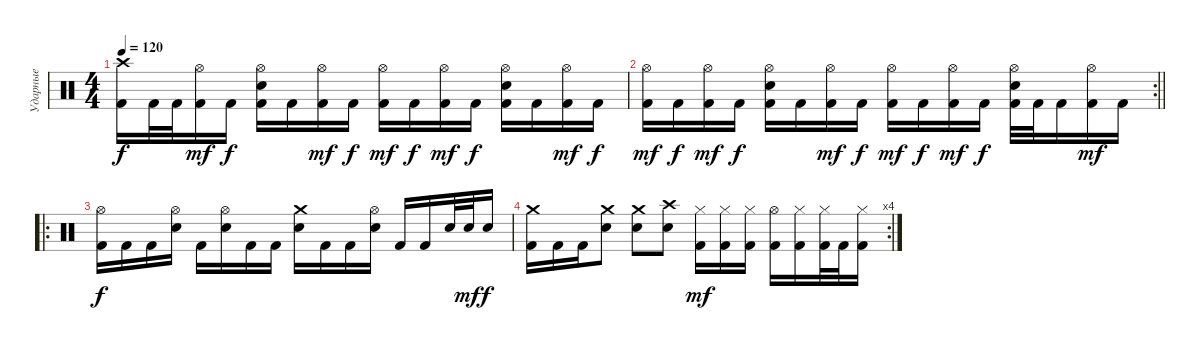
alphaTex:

\track ("Ударные" "Ударные") {instrument percussion}
\staff {score}
\articulation defaults
\ts (4 4)
\tempo 120
\clef neutral
\ks c
("Crash high (hit)" "Kick (hit) 2").16{dy f} "Kick (hit) 2".32 "Kick (hit) 2".32 ("Hi-Hat (open)" "Kick (hit) 2").16{dy mf} "Kick (hit) 2".16{dy f} ("Hi-Hat (open)" "Electric Snare (hit)" "Kick (hit) 2").16 "Kick (hit) 2".16 ("Hi-Hat (open)" "Kick (hit) 2").16{dy mf} "Kick (hit) 2".16{dy f} ("Hi-Hat (open)" "Kick (hit) 2").16{dy mf} "Kick (hit) 2".16{dy f} ("Hi-Hat (open)" "Kick (hit) 2").16{dy mf} "Kick (hit) 2".16{dy f} ("Hi-Hat (open)" "Electric Snare (hit)" "Kick (hit) 2").16 "Kick (hit) 2".16 ("Hi-Hat (open)" "Kick (hit) 2").16{dy mf} "Kick (hit) 2".16{dy f} |
\rc 2
\barLineRight lightlight
("Hi-Hat (open)" "Kick (hit) 2").16{dy mf} "Kick (hit) 2".16{dy f} ("Hi-Hat (open)" "Kick (hit) 2").16{dy mf} "Kick (hit) 2".16{dy f} ("Hi-Hat (open)" "Electric Snare (hit)" "Kick (hit) 2").16 "Kick (hit) 2".16 ("Hi-Hat (open)" "Kick (hit) 2").16{dy mf} "Kick (hit) 2".16{dy f} ("Hi-Hat (open)" "Kick (hit) 2").16{dy mf} "Kick (hit) 2".16{dy f} ("Hi-Hat (open)" "Kick (hit) 2").16{dy mf} "Kick (hit) 2".16{dy f} ("Hi-Hat (open)" "Electric Snare (hit)" "Kick (hit) 2").32 "Kick (hit) 2".32 "Kick (hit) 2".16 ("Hi-Hat (open)" "Kick (hit) 2").16{dy mf} "Kick (hit) 2".16 |
\ro
("Hi-Hat (open)" "Kick (hit) 2").16{dy f} "Kick (hit) 2".16 "Kick (hit) 2".16 ("Hi-Hat (open)" "Electric Snare (hit)").16 "Kick (hit) 2".16 ("Hi-Hat (open)" "Electric Snare (hit)").16 "Kick (hit) 2".16 "Kick (hit) 2".16 ("Crash medium (hit)" "Electric Snare (hit)").16 "Kick (hit) 2".16 "Kick (hit) 2".16 ("Hi-Hat (open)" "Electric Snare (hit)").16 "Kick (hit) 2".16 "Kick (hit) 2".16 "Electric Snare (hit)".32 "Electric Snare (hit)".32{dy mf} "Electric Snare (hit)".16{dy f} |
\rc 4
("Crash medium (hit)" "Kick (hit) 2").16 "Kick (hit) 2".16 "Kick (hit) 2".16 ("Crash medium (hit)" "Electric Snare (hit)").8 ("Crash medium (hit)" "Electric Snare (hit)").8 ("Crash high (hit)" "Electric Snare (hit)").8 ("Hi-Hat (closed)" "Kick (hit) 2").16{dy mf} ("Hi-Hat (closed)" "Kick (hit) 2").16 ("Hi-Hat (closed)" "Kick (hit) 2").16 ("Hi-Hat (open)" "Kick (hit) 2").16 ("Hi-Hat (closed)" "Kick (hit) 2").16 ("Hi-Hat (closed)" "Kick (hit) 2").32 "Kick (hit) 2".32 ("Hi-Hat (closed)" "Kick (hit) 2").16
